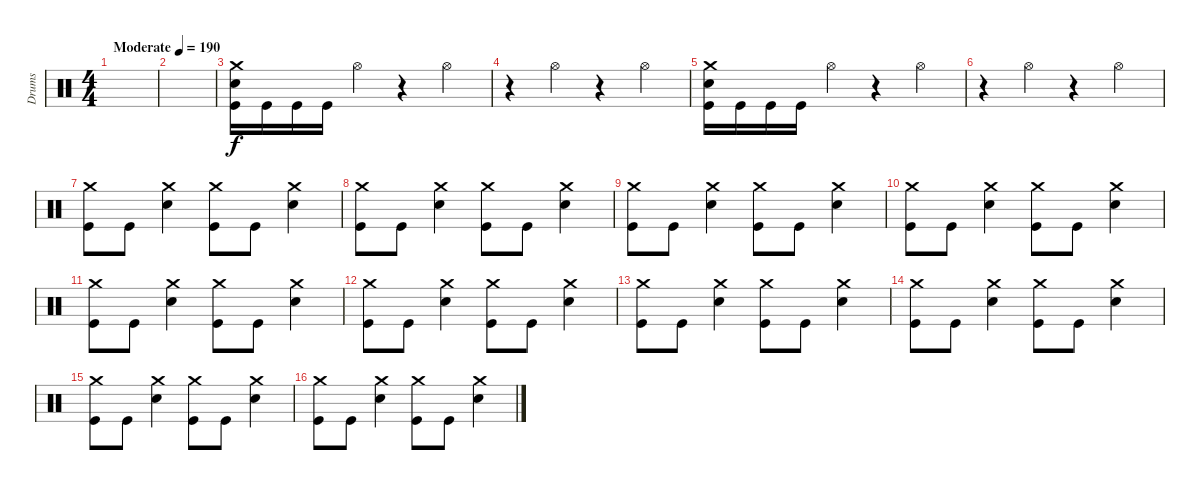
\track ("Drums" "Drums") {instrument percussion}
\staff {score}
\articulation defaults
\ts (4 4)
\tempo (190 "Moderate")
\clef neutral
\ks c
|
|
("Crash medium (hit)" "Snare (hit) 2" "Kick (hit)").16 "Kick (hit)".16 "Kick (hit)".16 "Kick (hit)".16 "Hi-Hat (open)".4 r.4 "Hi-Hat (open)".4 |
r.4 "Hi-Hat (open)".4 r.4 "Hi-Hat (open)".4 |
("Crash medium (hit)" "Snare (hit) 2" "Kick (hit)").16 "Kick (hit)".16 "Kick (hit)".16 "Kick (hit)".16 "Hi-Hat (open)".4 r.4 "Hi-Hat (open)".4 |
r.4 "Hi-Hat (open)".4 r.4 "Hi-Hat (open)".4 |
("Crash medium (hit)" "Kick (hit)").8 "Kick (hit)".8 ("Crash medium (hit)" "Snare (hit) 2").4 ("Crash medium (hit)" "Kick (hit)").8 "Kick (hit)".8 ("Crash medium (hit)" "Snare (hit) 2").4 |
("Crash medium (hit)" "Kick (hit)").8 "Kick (hit)".8 ("Crash medium (hit)" "Snare (hit) 2").4 ("Crash medium (hit)" "Kick (hit)").8 "Kick (hit)".8 ("Crash medium (hit)" "Snare (hit) 2").4 |
("Crash medium (hit)" "Kick (hit)").8 "Kick (hit)".8 ("Crash medium (hit)" "Snare (hit) 2").4 ("Crash medium (hit)" "Kick (hit)").8 "Kick (hit)".8 ("Crash medium (hit)" "Snare (hit) 2").4 |
("Crash medium (hit)" "Kick (hit)").8 "Kick (hit)".8 ("Crash medium (hit)" "Snare (hit) 2").4 ("Crash medium (hit)" "Kick (hit)").8 "Kick (hit)".8 ("Crash medium (hit)" "Snare (hit) 2").4 |
("Crash medium (hit)" "Kick (hit)").8 "Kick (hit)".8 ("Crash medium (hit)" "Snare (hit) 2").4 ("Crash medium (hit)" "Kick (hit)").8 "Kick (hit)".8 ("Crash medium (hit)" "Snare (hit) 2").4 |
("Crash medium (hit)" "Kick (hit)").8 "Kick (hit)".8 ("Crash medium (hit)" "Snare (hit) 2").4 ("Crash medium (hit)" "Kick (hit)").8 "Kick (hit)".8 ("Crash medium (hit)" "Snare (hit) 2").4 |
("Crash medium (hit)" "Kick (hit)").8 "Kick (hit)".8 ("Crash medium (hit)" "Snare (hit) 2").4 ("Crash medium (hit)" "Kick (hit)").8 "Kick (hit)".8 ("Crash medium (hit)" "Snare (hit) 2").4 |
("Crash medium (hit)" "Kick (hit)").8 "Kick (hit)".8 ("Crash medium (hit)" "Snare (hit) 2").4 ("Crash medium (hit)" "Kick (hit)").8 "Kick (hit)".8 ("Crash medium (hit)" "Snare (hit) 2").4 |
("Crash medium (hit)" "Kick (hit)").8 "Kick (hit)".8 ("Crash medium (hit)" "Snare (hit) 2").4 ("Crash medium (hit)" "Kick (hit)").8 "Kick (hit)".8 ("Crash medium (hit)" "Snare (hit) 2").4 |
("Crash medium (hit)" "Kick (hit)").8 "Kick (hit)".8 ("Crash medium (hit)" "Snare (hit) 2").4 ("Crash medium (hit)" "Kick (hit)").8 "Kick (hit)".8 ("Crash medium (hit)" "Snare (hit) 2").4
